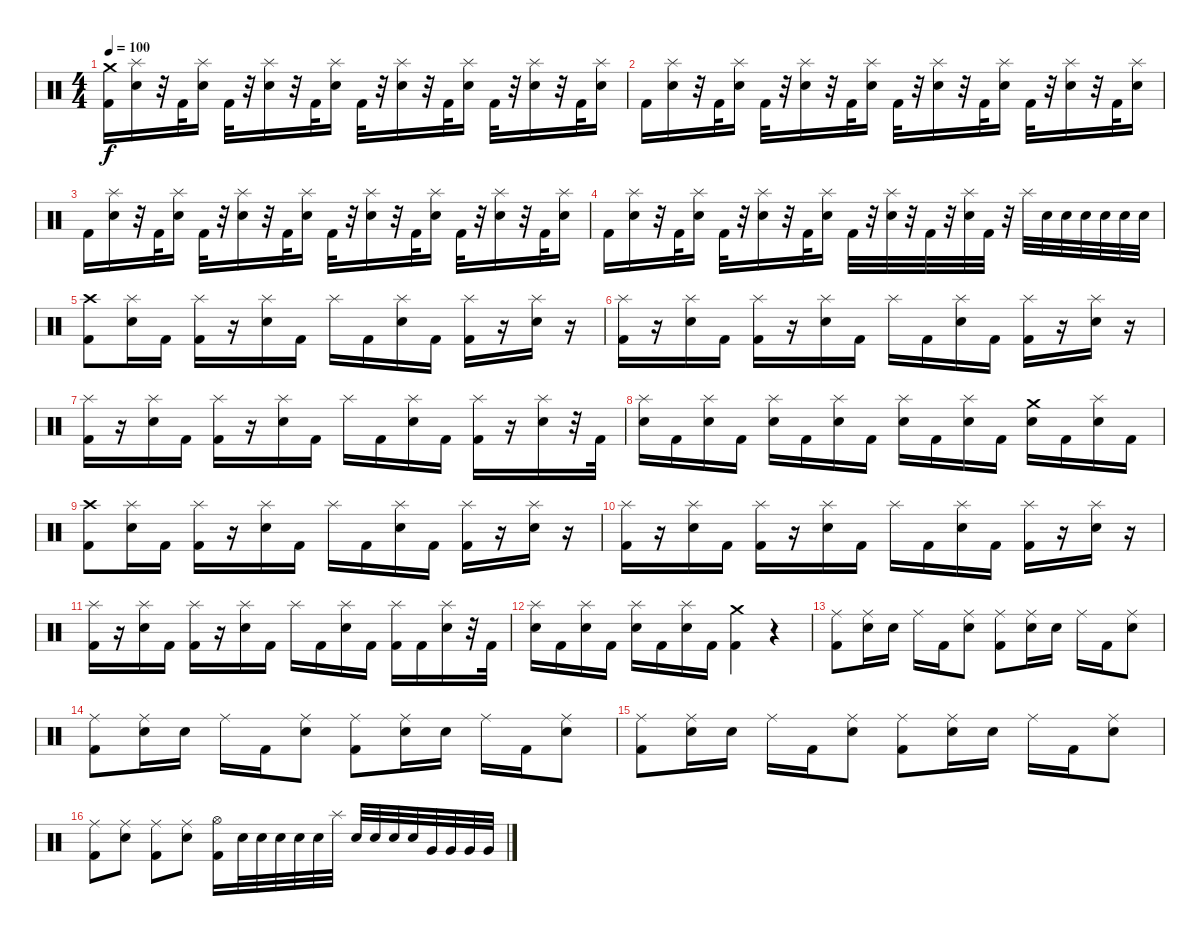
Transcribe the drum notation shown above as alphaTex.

\track "" {instrument percussion}
\staff {score}
\articulation defaults
\ts (4 4)
\tempo 100
\clef neutral
\ks c
("Crash medium (hit)" "Kick (hit) 2").16{dy f} ("Splash (hit)" "Snare (hit) 2").16 r.32 "Kick (hit) 2".32 ("Splash (hit)" "Snare (hit) 2").16 "Kick (hit) 2".32 r.32 ("Splash (hit)" "Snare (hit) 2").16 r.32 "Kick (hit) 2".32 ("Splash (hit)" "Snare (hit) 2").16 "Kick (hit) 2".32 r.32 ("Splash (hit)" "Snare (hit) 2").16 r.32 "Kick (hit) 2".32 ("Splash (hit)" "Snare (hit) 2").16 "Kick (hit) 2".32 r.32 ("Splash (hit)" "Snare (hit) 2").16 r.32 "Kick (hit) 2".32 ("Splash (hit)" "Snare (hit) 2").16 |
"Kick (hit) 2".16 ("Splash (hit)" "Snare (hit) 2").16 r.32 "Kick (hit) 2".32 ("Splash (hit)" "Snare (hit) 2").16 "Kick (hit) 2".32 r.32 ("Splash (hit)" "Snare (hit) 2").16 r.32 "Kick (hit) 2".32 ("Splash (hit)" "Snare (hit) 2").16 "Kick (hit) 2".32 r.32 ("Splash (hit)" "Snare (hit) 2").16 r.32 "Kick (hit) 2".32 ("Splash (hit)" "Snare (hit) 2").16 "Kick (hit) 2".32 r.32 ("Splash (hit)" "Snare (hit) 2").16 r.32 "Kick (hit) 2".32 ("Splash (hit)" "Snare (hit) 2").16 |
"Kick (hit) 2".16 ("Splash (hit)" "Snare (hit) 2").16 r.32 "Kick (hit) 2".32 ("Splash (hit)" "Snare (hit) 2").16 "Kick (hit) 2".32 r.32 ("Splash (hit)" "Snare (hit) 2").16 r.32 "Kick (hit) 2".32 ("Splash (hit)" "Snare (hit) 2").16 "Kick (hit) 2".32 r.32 ("Splash (hit)" "Snare (hit) 2").16 r.32 "Kick (hit) 2".32 ("Splash (hit)" "Snare (hit) 2").16 "Kick (hit) 2".32 r.32 ("Splash (hit)" "Snare (hit) 2").16 r.32 "Kick (hit) 2".32 ("Splash (hit)" "Snare (hit) 2").16 |
"Kick (hit) 2".16 ("Splash (hit)" "Snare (hit) 2").16 r.32 "Kick (hit) 2".32 ("Splash (hit)" "Snare (hit) 2").16 "Kick (hit) 2".32 r.32 ("Splash (hit)" "Snare (hit) 2").16 r.32 "Kick (hit) 2".32 ("Splash (hit)" "Snare (hit) 2").16 "Kick (hit) 2".32 r.32 ("Splash (hit)" "Snare (hit) 2").32 r.32 "Kick (hit) 2".32 r.32 ("Splash (hit)" "Snare (hit) 2").32 "Kick (hit) 2".32 r.32 "Splash (hit)".32 "Snare (hit) 2".32 "Snare (hit) 2".32 "Snare (hit) 2".32 "Snare (hit) 2".32 "Snare (hit) 2".32 "Snare (hit) 2".32 |
("Kick (hit) 2" "Crash high (hit)").8 ("Splash (hit)" "Snare (hit) 2").16 "Kick (hit) 2".16 ("Splash (hit)" "Kick (hit) 2").16 r.16 ("Splash (hit)" "Snare (hit) 2").16 "Kick (hit) 2".16 "Splash (hit)".16 "Kick (hit) 2".16 ("Splash (hit)" "Snare (hit) 2").16 "Kick (hit) 2".16 ("Splash (hit)" "Kick (hit) 2").16 r.16 ("Splash (hit)" "Snare (hit) 2").16 r.16 |
("Splash (hit)" "Kick (hit) 2").16 r.16 ("Splash (hit)" "Snare (hit) 2").16 "Kick (hit) 2".16 ("Splash (hit)" "Kick (hit) 2").16 r.16 ("Splash (hit)" "Snare (hit) 2").16 "Kick (hit) 2".16 "Splash (hit)".16 "Kick (hit) 2".16 ("Splash (hit)" "Snare (hit) 2").16 "Kick (hit) 2".16 ("Splash (hit)" "Kick (hit) 2").16 r.16 ("Splash (hit)" "Snare (hit) 2").16 r.16 |
("Splash (hit)" "Kick (hit) 2").16 r.16 ("Splash (hit)" "Snare (hit) 2").16 "Kick (hit) 2".16 ("Splash (hit)" "Kick (hit) 2").16 r.16 ("Splash (hit)" "Snare (hit) 2").16 "Kick (hit) 2".16 "Splash (hit)".16 "Kick (hit) 2".16 ("Splash (hit)" "Snare (hit) 2").16 "Kick (hit) 2".16 ("Splash (hit)" "Kick (hit) 2").16 r.16 ("Splash (hit)" "Snare (hit) 2").16 r.32 "Kick (hit) 2".32 |
("Splash (hit)" "Snare (hit) 2").16 "Kick (hit) 2".16 ("Splash (hit)" "Snare (hit) 2").16 "Kick (hit) 2".16 ("Splash (hit)" "Snare (hit) 2").16 "Kick (hit) 2".16 ("Splash (hit)" "Snare (hit) 2").16 "Kick (hit) 2".16 ("Splash (hit)" "Snare (hit) 2").16 "Kick (hit) 2".16 ("Splash (hit)" "Snare (hit) 2").16 "Kick (hit) 2".16 ("Crash medium (hit)" "Snare (hit) 2").16 "Kick (hit) 2".16 ("Splash (hit)" "Snare (hit) 2").16 "Kick (hit) 2".16 |
("Kick (hit) 2" "Crash high (hit)").8 ("Splash (hit)" "Snare (hit) 2").16 "Kick (hit) 2".16 ("Splash (hit)" "Kick (hit) 2").16 r.16 ("Splash (hit)" "Snare (hit) 2").16 "Kick (hit) 2".16 "Splash (hit)".16 "Kick (hit) 2".16 ("Splash (hit)" "Snare (hit) 2").16 "Kick (hit) 2".16 ("Splash (hit)" "Kick (hit) 2").16 r.16 ("Splash (hit)" "Snare (hit) 2").16 r.16 |
("Splash (hit)" "Kick (hit) 2").16 r.16 ("Splash (hit)" "Snare (hit) 2").16 "Kick (hit) 2".16 ("Splash (hit)" "Kick (hit) 2").16 r.16 ("Splash (hit)" "Snare (hit) 2").16 "Kick (hit) 2".16 "Splash (hit)".16 "Kick (hit) 2".16 ("Splash (hit)" "Snare (hit) 2").16 "Kick (hit) 2".16 ("Splash (hit)" "Kick (hit) 2").16 r.16 ("Splash (hit)" "Snare (hit) 2").16 r.16 |
("Splash (hit)" "Kick (hit) 2").16 r.16 ("Splash (hit)" "Snare (hit) 2").16 "Kick (hit) 2".16 ("Splash (hit)" "Kick (hit) 2").16 r.16 ("Splash (hit)" "Snare (hit) 2").16 "Kick (hit) 2".16 "Splash (hit)".16 "Kick (hit) 2".16 ("Splash (hit)" "Snare (hit) 2").16 "Kick (hit) 2".16 ("Splash (hit)" "Kick (hit) 2").16 "Kick (hit) 2".16 ("Splash (hit)" "Snare (hit) 2").16 r.32 "Kick (hit) 2".32 |
("Splash (hit)" "Snare (hit) 2").16 "Kick (hit) 2".16 ("Splash (hit)" "Snare (hit) 2").16 "Kick (hit) 2".16 ("Splash (hit)" "Snare (hit) 2").16 "Kick (hit) 2".16 ("Splash (hit)" "Snare (hit) 2").16 "Kick (hit) 2".16 ("Crash medium (hit)" "Kick (hit) 2").4 r.4 |
("Ride (middle)" "Kick (hit) 2").8 ("Ride (middle)" "Snare (hit) 2").16 "Snare (hit) 2".16 "Ride (middle)".16 "Kick (hit) 2".16 ("Ride (middle)" "Snare (hit) 2").8 ("Ride (middle)" "Kick (hit) 2").8 ("Ride (middle)" "Snare (hit) 2").16 "Snare (hit) 2".16 "Ride (middle)".16 "Kick (hit) 2".16 ("Ride (middle)" "Snare (hit) 2").8 |
("Ride (middle)" "Kick (hit) 2").8 ("Ride (middle)" "Snare (hit) 2").16 "Snare (hit) 2".16 "Ride (middle)".16 "Kick (hit) 2".16 ("Ride (middle)" "Snare (hit) 2").8 ("Ride (middle)" "Kick (hit) 2").8 ("Ride (middle)" "Snare (hit) 2").16 "Snare (hit) 2".16 "Ride (middle)".16 "Kick (hit) 2".16 ("Ride (middle)" "Snare (hit) 2").8 |
("Ride (middle)" "Kick (hit) 2").8 ("Ride (middle)" "Snare (hit) 2").16 "Snare (hit) 2".16 "Ride (middle)".16 "Kick (hit) 2".16 ("Ride (middle)" "Snare (hit) 2").8 ("Ride (middle)" "Kick (hit) 2").8 ("Ride (middle)" "Snare (hit) 2").16 "Snare (hit) 2".16 "Ride (middle)".16 "Kick (hit) 2".16 ("Ride (middle)" "Snare (hit) 2").8 |
("Ride (middle)" "Kick (hit) 2").8 ("Ride (middle)" "Snare (hit) 2").8 ("Ride (middle)" "Kick (hit) 2").8 ("Ride (middle)" "Snare (hit) 2").8 ("Hi-Hat (open)" "Kick (hit) 2").16 "Snare (hit) 2".32 "Snare (hit) 2".32 "Snare (hit) 2".32 "Snare (hit) 2".32 "Snare (hit) 2".32 "Splash (hit)".32 "Snare (hit) 2".32 "Snare (hit) 2".32 "Snare (hit) 2".32 "Snare (hit) 2".32 "Very Low Tom (hit)".32 "Very Low Tom (hit)".32 "Very Low Tom (hit)".32 "Very Low Tom (hit)".32
